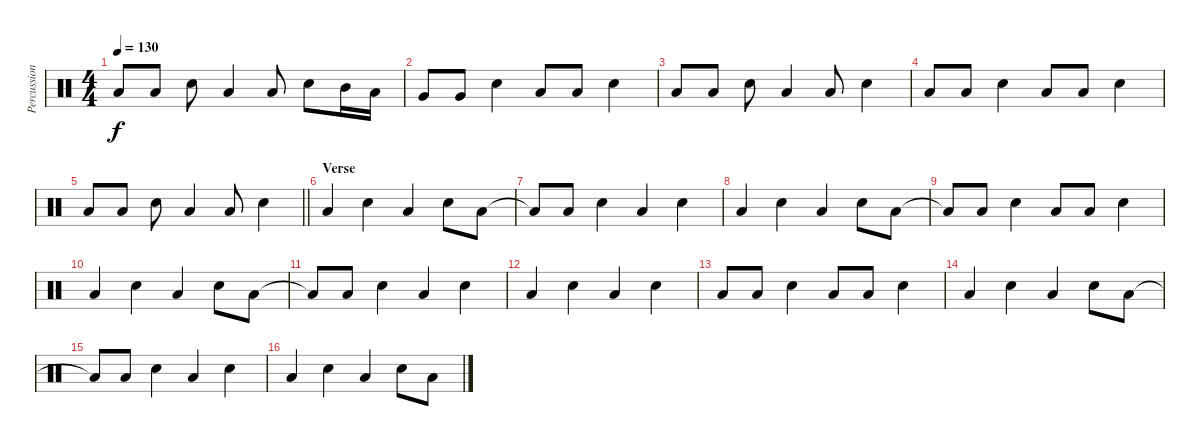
\track ("Percussion 1" "Percussion") {instrument percussion}
\staff {score}
\articulation defaults
\ts (4 4)
\tempo 130
\clef neutral
\ks c "Low Floor Tom (hit)".8{dy f} "Low Floor Tom (hit)".8 "Electric Snare (hit)".8 "Low Floor Tom (hit)".4 "Low Floor Tom (hit)".8 "Electric Snare (hit)".8 "Mid Tom (hit)".16 "Low Tom (hit)".16
|
"Very Low Tom (hit)".8 "Very Low Tom (hit)".8 "Electric Snare (hit)".4 "Low Floor Tom (hit)".8 "Low Floor Tom (hit)".8 "Electric Snare (hit)".4 |
"Low Floor Tom (hit)".8 "Low Floor Tom (hit)".8 "Electric Snare (hit)".8 "Low Floor Tom (hit)".4 "Low Floor Tom (hit)".8 "Electric Snare (hit)".4 |
"Low Floor Tom (hit)".8 "Low Floor Tom (hit)".8 "Electric Snare (hit)".4 "Low Floor Tom (hit)".8 "Low Floor Tom (hit)".8 "Electric Snare (hit)".4 |
\barLineRight lightlight "Low Floor Tom (hit)".8 "Low Floor Tom (hit)".8 "Electric Snare (hit)".8 "Low Floor Tom (hit)".4 "Low Floor Tom (hit)".8 "Electric Snare (hit)".4
|
\section ("" "Verse")
"Low Floor Tom (hit)".4 "Electric Snare (hit)".4 "Low Floor Tom (hit)".4 "Electric Snare (hit)".8 "Low Floor Tom (hit)".8 |
"Low Floor Tom (hit)"{t}.8 "Low Floor Tom (hit)".8 "Electric Snare (hit)".4 "Low Floor Tom (hit)".4 "Electric Snare (hit)".4 |
"Low Floor Tom (hit)".4 "Electric Snare (hit)".4 "Low Floor Tom (hit)".4 "Electric Snare (hit)".8 "Low Floor Tom (hit)".8 |
"Low Floor Tom (hit)"{t}.8 "Low Floor Tom (hit)".8 "Electric Snare (hit)".4 "Low Floor Tom (hit)".8 "Low Floor Tom (hit)".8 "Electric Snare (hit)".4 |
"Low Floor Tom (hit)".4 "Electric Snare (hit)".4 "Low Floor Tom (hit)".4 "Electric Snare (hit)".8 "Low Floor Tom (hit)".8 |
"Low Floor Tom (hit)"{t}.8 "Low Floor Tom (hit)".8 "Electric Snare (hit)".4 "Low Floor Tom (hit)".4 "Electric Snare (hit)".4 |
"Low Floor Tom (hit)".4 "Electric Snare (hit)".4 "Low Floor Tom (hit)".4 "Electric Snare (hit)".4 |
"Low Floor Tom (hit)".8 "Low Floor Tom (hit)".8 "Electric Snare (hit)".4 "Low Floor Tom (hit)".8 "Low Floor Tom (hit)".8 "Electric Snare (hit)".4 |
"Low Floor Tom (hit)".4 "Electric Snare (hit)".4 "Low Floor Tom (hit)".4 "Electric Snare (hit)".8 "Low Floor Tom (hit)".8 |
"Low Floor Tom (hit)"{t}.8 "Low Floor Tom (hit)".8 "Electric Snare (hit)".4 "Low Floor Tom (hit)".4 "Electric Snare (hit)".4 |
"Low Floor Tom (hit)".4 "Electric Snare (hit)".4 "Low Floor Tom (hit)".4 "Electric Snare (hit)".8 "Low Floor Tom (hit)".8
